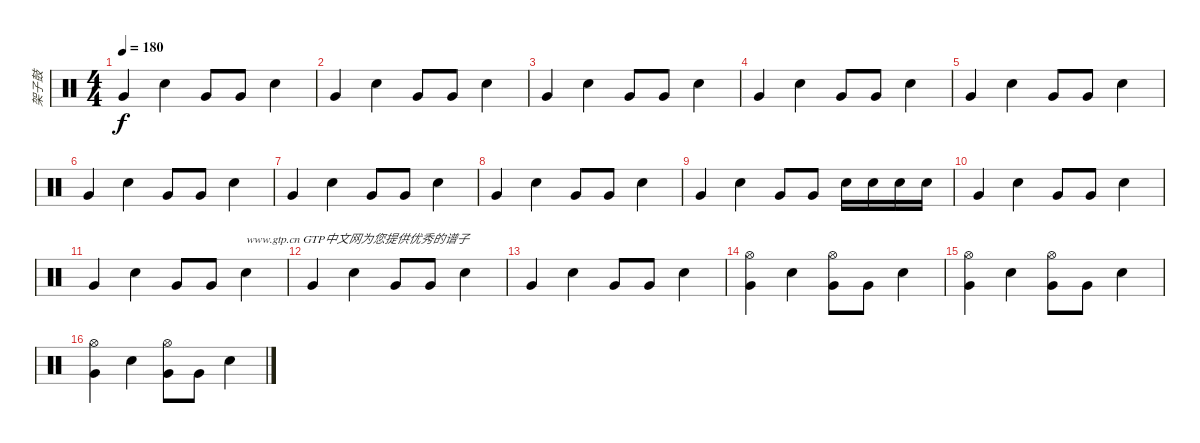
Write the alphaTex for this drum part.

\track ("架子鼓" "架子鼓") {instrument percussion}
\staff {score}
\articulation defaults
\ts (4 4)
\tempo 180
\clef neutral
\ks c "Very Low Tom (hit)".4{dy f} "Electric Snare (hit)".4 "Very Low Tom (hit)".8 "Very Low Tom (hit)".8 "Electric Snare (hit)".4
|
"Very Low Tom (hit)".4 "Electric Snare (hit)".4 "Very Low Tom (hit)".8 "Very Low Tom (hit)".8 "Electric Snare (hit)".4 |
"Very Low Tom (hit)".4 "Electric Snare (hit)".4 "Very Low Tom (hit)".8 "Very Low Tom (hit)".8 "Electric Snare (hit)".4 |
"Very Low Tom (hit)".4 "Electric Snare (hit)".4 "Very Low Tom (hit)".8 "Very Low Tom (hit)".8 "Electric Snare (hit)".4 |
"Very Low Tom (hit)".4 "Electric Snare (hit)".4 "Very Low Tom (hit)".8 "Very Low Tom (hit)".8 "Electric Snare (hit)".4 |
"Very Low Tom (hit)".4 "Electric Snare (hit)".4 "Very Low Tom (hit)".8 "Very Low Tom (hit)".8 "Electric Snare (hit)".4 |
"Very Low Tom (hit)".4 "Electric Snare (hit)".4 "Very Low Tom (hit)".8 "Very Low Tom (hit)".8 "Electric Snare (hit)".4 |
"Very Low Tom (hit)".4 "Electric Snare (hit)".4 "Very Low Tom (hit)".8 "Very Low Tom (hit)".8 "Electric Snare (hit)".4 |
"Very Low Tom (hit)".4 "Electric Snare (hit)".4 "Very Low Tom (hit)".8 "Very Low Tom (hit)".8 "Electric Snare (hit)".16 "Electric Snare (hit)".16 "Electric Snare (hit)".16 "Electric Snare (hit)".16 |
"Very Low Tom (hit)".4 "Electric Snare (hit)".4 "Very Low Tom (hit)".8 "Very Low Tom (hit)".8 "Electric Snare (hit)".4 |
"Very Low Tom (hit)".4 "Electric Snare (hit)".4 "Very Low Tom (hit)".8 "Very Low Tom (hit)".8 "Electric Snare (hit)".4{txt "www.gtp.cn GTP中文网为您提供优秀的谱子"} |
"Very Low Tom (hit)".4 "Electric Snare (hit)".4 "Very Low Tom (hit)".8 "Very Low Tom (hit)".8 "Electric Snare (hit)".4 |
"Very Low Tom (hit)".4 "Electric Snare (hit)".4 "Very Low Tom (hit)".8 "Very Low Tom (hit)".8 "Electric Snare (hit)".4 |
("Hi-Hat (open)" "Very Low Tom (hit)").4 "Electric Snare (hit)".4 ("Hi-Hat (open)" "Very Low Tom (hit)").8 "Very Low Tom (hit)".8 "Electric Snare (hit)".4 |
("Hi-Hat (open)" "Very Low Tom (hit)").4 "Electric Snare (hit)".4 ("Hi-Hat (open)" "Very Low Tom (hit)").8 "Very Low Tom (hit)".8 "Electric Snare (hit)".4 |
("Hi-Hat (open)" "Very Low Tom (hit)").4 "Electric Snare (hit)".4 ("Hi-Hat (open)" "Very Low Tom (hit)").8 "Very Low Tom (hit)".8 "Electric Snare (hit)".4
